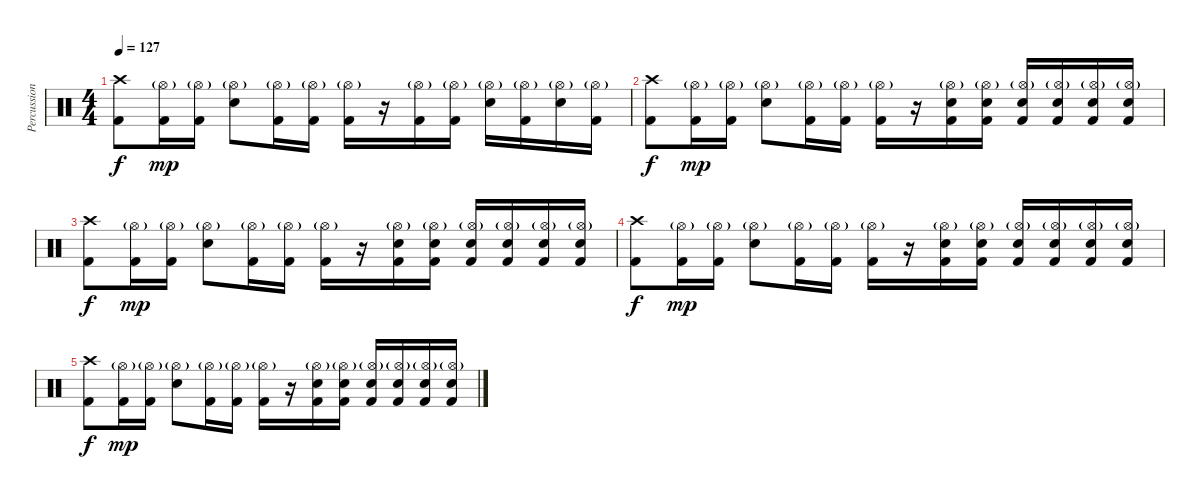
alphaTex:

\track ("Percussions" "Percussion") {instrument percussion}
\staff {score}
\articulation defaults
\ts (4 4)
\tempo 127
\clef neutral
\ks c
("Crash high (hit)" "Kick (hit) 2").8{dy f} ("Hi-Hat (open)"{g} "Kick (hit) 2").16{dy mp} ("Hi-Hat (open)"{g} "Kick (hit) 2").16 ("Hi-Hat (open)"{g} "Electric Snare (hit)").8 ("Hi-Hat (open)"{g} "Kick (hit) 2").16 ("Hi-Hat (open)"{g} "Kick (hit) 2").16 ("Hi-Hat (open)"{g} "Kick (hit) 2").16 r.16 ("Hi-Hat (open)"{g} "Kick (hit) 2").16 ("Hi-Hat (open)"{g} "Kick (hit) 2").16 ("Hi-Hat (open)"{g} "Electric Snare (hit)").16 ("Hi-Hat (open)"{g} "Kick (hit) 2").16 ("Hi-Hat (open)"{g} "Electric Snare (hit)").16 ("Hi-Hat (open)"{g} "Kick (hit) 2").16 |
("Crash high (hit)" "Kick (hit) 2").8{dy f} ("Hi-Hat (open)"{g} "Kick (hit) 2").16{dy mp} ("Hi-Hat (open)"{g} "Kick (hit) 2").16 ("Hi-Hat (open)"{g} "Electric Snare (hit)").8 ("Hi-Hat (open)"{g} "Kick (hit) 2").16 ("Hi-Hat (open)"{g} "Kick (hit) 2").16 ("Hi-Hat (open)"{g} "Kick (hit) 2").16 r.16 ("Hi-Hat (open)"{g} "Kick (hit) 2" "Electric Snare (hit)").16 ("Hi-Hat (open)"{g} "Kick (hit) 2" "Electric Snare (hit)").16 ("Hi-Hat (open)"{g} "Kick (hit) 2" "Electric Snare (hit)").16 ("Hi-Hat (open)"{g} "Kick (hit) 2" "Electric Snare (hit)").16 ("Hi-Hat (open)"{g} "Kick (hit) 2" "Electric Snare (hit)").16 ("Hi-Hat (open)"{g} "Kick (hit) 2" "Electric Snare (hit)").16 |
("Crash high (hit)" "Kick (hit) 2").8{dy f} ("Hi-Hat (open)"{g} "Kick (hit) 2").16{dy mp} ("Hi-Hat (open)"{g} "Kick (hit) 2").16 ("Hi-Hat (open)"{g} "Electric Snare (hit)").8 ("Hi-Hat (open)"{g} "Kick (hit) 2").16 ("Hi-Hat (open)"{g} "Kick (hit) 2").16 ("Hi-Hat (open)"{g} "Kick (hit) 2").16 r.16 ("Hi-Hat (open)"{g} "Kick (hit) 2" "Electric Snare (hit)").16 ("Hi-Hat (open)"{g} "Kick (hit) 2" "Electric Snare (hit)").16 ("Hi-Hat (open)"{g} "Kick (hit) 2" "Electric Snare (hit)").16 ("Hi-Hat (open)"{g} "Kick (hit) 2" "Electric Snare (hit)").16 ("Hi-Hat (open)"{g} "Kick (hit) 2" "Electric Snare (hit)").16 ("Hi-Hat (open)"{g} "Kick (hit) 2" "Electric Snare (hit)").16 |
("Crash high (hit)" "Kick (hit) 2").8{dy f} ("Hi-Hat (open)"{g} "Kick (hit) 2").16{dy mp} ("Hi-Hat (open)"{g} "Kick (hit) 2").16 ("Hi-Hat (open)"{g} "Electric Snare (hit)").8 ("Hi-Hat (open)"{g} "Kick (hit) 2").16 ("Hi-Hat (open)"{g} "Kick (hit) 2").16 ("Hi-Hat (open)"{g} "Kick (hit) 2").16 r.16 ("Hi-Hat (open)"{g} "Kick (hit) 2" "Electric Snare (hit)").16 ("Hi-Hat (open)"{g} "Kick (hit) 2" "Electric Snare (hit)").16 ("Hi-Hat (open)"{g} "Kick (hit) 2" "Electric Snare (hit)").16 ("Hi-Hat (open)"{g} "Kick (hit) 2" "Electric Snare (hit)").16 ("Hi-Hat (open)"{g} "Kick (hit) 2" "Electric Snare (hit)").16 ("Hi-Hat (open)"{g} "Kick (hit) 2" "Electric Snare (hit)").16 |
("Crash high (hit)" "Kick (hit) 2").8{dy f} ("Hi-Hat (open)"{g} "Kick (hit) 2").16{dy mp} ("Hi-Hat (open)"{g} "Kick (hit) 2").16 ("Hi-Hat (open)"{g} "Electric Snare (hit)").8 ("Hi-Hat (open)"{g} "Kick (hit) 2").16 ("Hi-Hat (open)"{g} "Kick (hit) 2").16 ("Hi-Hat (open)"{g} "Kick (hit) 2").16 r.16 ("Hi-Hat (open)"{g} "Kick (hit) 2" "Electric Snare (hit)").16 ("Hi-Hat (open)"{g} "Kick (hit) 2" "Electric Snare (hit)").16 ("Hi-Hat (open)"{g} "Kick (hit) 2" "Electric Snare (hit)").16 ("Hi-Hat (open)"{g} "Kick (hit) 2" "Electric Snare (hit)").16 ("Hi-Hat (open)"{g} "Kick (hit) 2" "Electric Snare (hit)").16 ("Hi-Hat (open)"{g} "Kick (hit) 2" "Electric Snare (hit)").16
